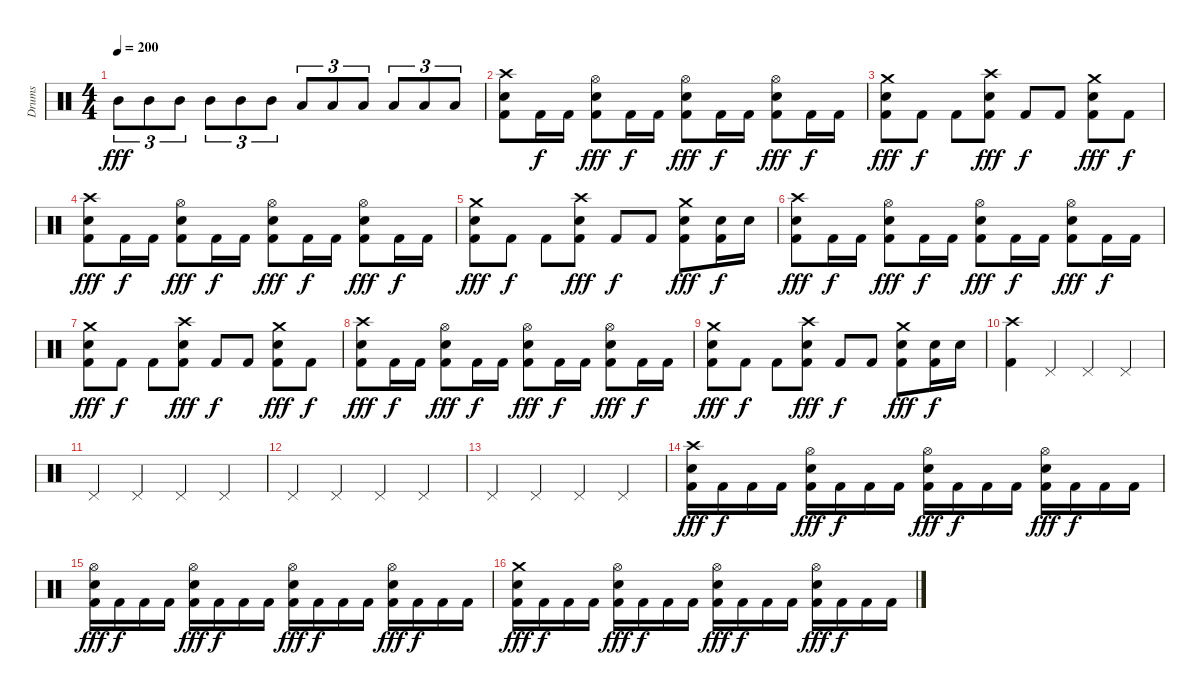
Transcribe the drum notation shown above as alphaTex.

\track ("Drums" "Drums") {instrument percussion}
\staff {score}
\articulation defaults
\ts (4 4)
\tempo 200
\clef neutral
\ks c "Mid Tom (hit)".8{tu (3 2) dy fff} "Mid Tom (hit)".8{tu (3 2)} "Mid Tom (hit)".8{tu (3 2)} "Mid Tom (hit)".8{tu (3 2)} "Mid Tom (hit)".8{tu (3 2)} "Mid Tom (hit)".8{tu (3 2)} "Low Tom (hit)".8{tu (3 2)} "Low Tom (hit)".8{tu (3 2)} "Low Tom (hit)".8{tu (3 2)} "Low Tom (hit)".8{tu (3 2)} "Low Tom (hit)".8{tu (3 2)} "Low Tom (hit)".8{tu (3 2)}
|
("Crash high (hit)" "Snare (hit) 2" "Kick (hit) 2").8 "Kick (hit) 2".16{dy f} "Kick (hit) 2".16 ("Hi-Hat (open)" "Snare (hit) 2" "Kick (hit) 2").8{dy fff} "Kick (hit) 2".16{dy f} "Kick (hit) 2".16 ("Hi-Hat (open)" "Snare (hit) 2" "Kick (hit) 2").8{dy fff} "Kick (hit) 2".16{dy f} "Kick (hit) 2".16 ("Hi-Hat (open)" "Snare (hit) 2" "Kick (hit) 2").8{dy fff} "Kick (hit) 2".16{dy f} "Kick (hit) 2".16 |
("Crash medium (hit)" "Snare (hit) 2" "Kick (hit) 2").8{dy fff} "Kick (hit) 2".8{dy f} "Kick (hit) 2".8 ("Crash high (hit)" "Snare (hit) 2" "Kick (hit) 2").8{dy fff} "Kick (hit) 2".8{dy f} "Kick (hit) 2".8 ("Crash medium (hit)" "Snare (hit) 2" "Kick (hit) 2").8{dy fff} "Kick (hit) 2".8{dy f} |
("Crash high (hit)" "Snare (hit) 2" "Kick (hit) 2").8{dy fff} "Kick (hit) 2".16{dy f} "Kick (hit) 2".16 ("Hi-Hat (open)" "Snare (hit) 2" "Kick (hit) 2").8{dy fff} "Kick (hit) 2".16{dy f} "Kick (hit) 2".16 ("Hi-Hat (open)" "Snare (hit) 2" "Kick (hit) 2").8{dy fff} "Kick (hit) 2".16{dy f} "Kick (hit) 2".16 ("Hi-Hat (open)" "Snare (hit) 2" "Kick (hit) 2").8{dy fff} "Kick (hit) 2".16{dy f} "Kick (hit) 2".16 |
("Crash medium (hit)" "Snare (hit) 2" "Kick (hit) 2").8{dy fff} "Kick (hit) 2".8{dy f} "Kick (hit) 2".8 ("Crash high (hit)" "Snare (hit) 2" "Kick (hit) 2").8{dy fff} "Kick (hit) 2".8{dy f} "Kick (hit) 2".8 ("Crash medium (hit)" "Snare (hit) 2" "Kick (hit) 2").8{dy fff} ("Snare (hit) 2" "Kick (hit) 2").16{dy f} "Snare (hit) 2".16 |
("Crash high (hit)" "Snare (hit) 2" "Kick (hit) 2").8{dy fff} "Kick (hit) 2".16{dy f} "Kick (hit) 2".16 ("Hi-Hat (open)" "Snare (hit) 2" "Kick (hit) 2").8{dy fff} "Kick (hit) 2".16{dy f} "Kick (hit) 2".16 ("Hi-Hat (open)" "Snare (hit) 2" "Kick (hit) 2").8{dy fff} "Kick (hit) 2".16{dy f} "Kick (hit) 2".16 ("Hi-Hat (open)" "Snare (hit) 2" "Kick (hit) 2").8{dy fff} "Kick (hit) 2".16{dy f} "Kick (hit) 2".16 |
("Crash medium (hit)" "Snare (hit) 2" "Kick (hit) 2").8{dy fff} "Kick (hit) 2".8{dy f} "Kick (hit) 2".8 ("Crash high (hit)" "Snare (hit) 2" "Kick (hit) 2").8{dy fff} "Kick (hit) 2".8{dy f} "Kick (hit) 2".8 ("Crash medium (hit)" "Snare (hit) 2" "Kick (hit) 2").8{dy fff} "Kick (hit) 2".8{dy f} |
("Crash high (hit)" "Snare (hit) 2" "Kick (hit) 2").8{dy fff} "Kick (hit) 2".16{dy f} "Kick (hit) 2".16 ("Hi-Hat (open)" "Snare (hit) 2" "Kick (hit) 2").8{dy fff} "Kick (hit) 2".16{dy f} "Kick (hit) 2".16 ("Hi-Hat (open)" "Snare (hit) 2" "Kick (hit) 2").8{dy fff} "Kick (hit) 2".16{dy f} "Kick (hit) 2".16 ("Hi-Hat (open)" "Snare (hit) 2" "Kick (hit) 2").8{dy fff} "Kick (hit) 2".16{dy f} "Kick (hit) 2".16 |
("Crash medium (hit)" "Snare (hit) 2" "Kick (hit) 2").8{dy fff} "Kick (hit) 2".8{dy f} "Kick (hit) 2".8 ("Crash high (hit)" "Snare (hit) 2" "Kick (hit) 2").8{dy fff} "Kick (hit) 2".8{dy f} "Kick (hit) 2".8 ("Crash medium (hit)" "Snare (hit) 2" "Kick (hit) 2").8{dy fff} ("Snare (hit) 2" "Kick (hit) 2").16{dy f} "Snare (hit) 2".16 |
("Crash high (hit)" "Kick (hit) 2").4 "Pedal Hi-Hat (hit)".4 "Pedal Hi-Hat (hit)".4 "Pedal Hi-Hat (hit)".4 |
"Pedal Hi-Hat (hit)".4 "Pedal Hi-Hat (hit)".4 "Pedal Hi-Hat (hit)".4 "Pedal Hi-Hat (hit)".4 |
"Pedal Hi-Hat (hit)".4 "Pedal Hi-Hat (hit)".4 "Pedal Hi-Hat (hit)".4 "Pedal Hi-Hat (hit)".4 |
"Pedal Hi-Hat (hit)".4 "Pedal Hi-Hat (hit)".4 "Pedal Hi-Hat (hit)".4 "Pedal Hi-Hat (hit)".4 |
("Crash high (hit)" "Snare (hit) 2" "Kick (hit) 2").16{dy fff} "Kick (hit) 2".16{dy f} "Kick (hit) 2".16 "Kick (hit) 2".16 ("Hi-Hat (open)" "Snare (hit) 2" "Kick (hit) 2").16{dy fff} "Kick (hit) 2".16{dy f} "Kick (hit) 2".16 "Kick (hit) 2".16 ("Hi-Hat (open)" "Snare (hit) 2" "Kick (hit) 2").16{dy fff} "Kick (hit) 2".16{dy f} "Kick (hit) 2".16 "Kick (hit) 2".16 ("Hi-Hat (open)" "Snare (hit) 2" "Kick (hit) 2").16{dy fff} "Kick (hit) 2".16{dy f} "Kick (hit) 2".16 "Kick (hit) 2".16 |
("Hi-Hat (open)" "Snare (hit) 2" "Kick (hit) 2").16{dy fff} "Kick (hit) 2".16{dy f} "Kick (hit) 2".16 "Kick (hit) 2".16 ("Hi-Hat (open)" "Snare (hit) 2" "Kick (hit) 2").16{dy fff} "Kick (hit) 2".16{dy f} "Kick (hit) 2".16 "Kick (hit) 2".16 ("Hi-Hat (open)" "Snare (hit) 2" "Kick (hit) 2").16{dy fff} "Kick (hit) 2".16{dy f} "Kick (hit) 2".16 "Kick (hit) 2".16 ("Hi-Hat (open)" "Snare (hit) 2" "Kick (hit) 2").16{dy fff} "Kick (hit) 2".16{dy f} "Kick (hit) 2".16 "Kick (hit) 2".16 |
("Crash medium (hit)" "Snare (hit) 2" "Kick (hit) 2").16{dy fff} "Kick (hit) 2".16{dy f} "Kick (hit) 2".16 "Kick (hit) 2".16 ("Hi-Hat (open)" "Snare (hit) 2" "Kick (hit) 2").16{dy fff} "Kick (hit) 2".16{dy f} "Kick (hit) 2".16 "Kick (hit) 2".16 ("Hi-Hat (open)" "Snare (hit) 2" "Kick (hit) 2").16{dy fff} "Kick (hit) 2".16{dy f} "Kick (hit) 2".16 "Kick (hit) 2".16 ("Hi-Hat (open)" "Snare (hit) 2" "Kick (hit) 2").16{dy fff} "Kick (hit) 2".16{dy f} "Kick (hit) 2".16 "Kick (hit) 2".16
